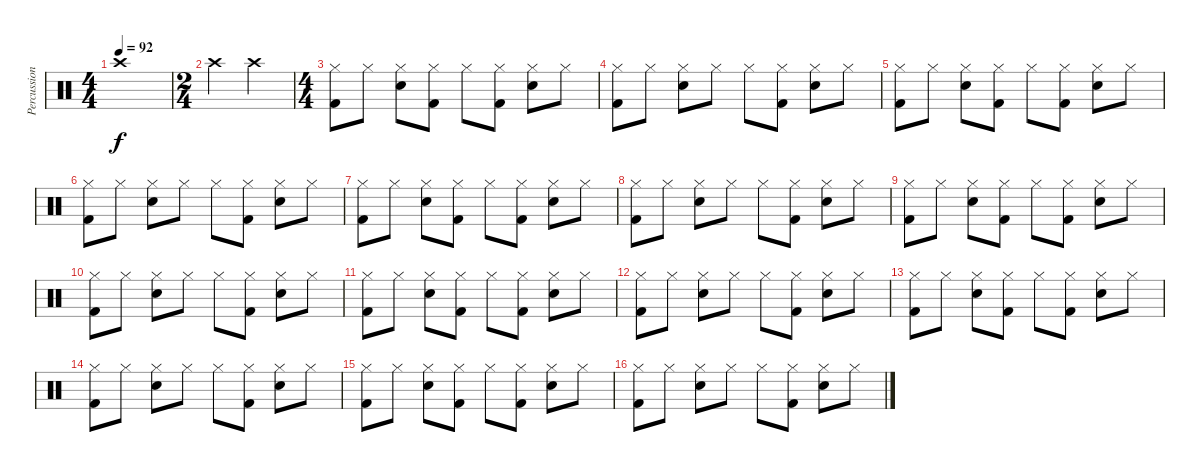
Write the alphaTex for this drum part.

\track ("Percussion" "Percussion") {instrument percussion}
\staff {score}
\articulation defaults
\ts (4 4)
\tempo 92
\clef neutral
\ks c "Crash high (hit)".1{dy f}
|
\ts (2 4)
"Crash high (hit)".4 "Crash high (hit)".4 |
\ts (4 4)
("Hi-Hat (closed)" "Kick (hit) 2").8 "Hi-Hat (closed)".8 ("Hi-Hat (closed)" "Snare (hit) 2").8 ("Hi-Hat (closed)" "Kick (hit) 2").8 "Hi-Hat (closed)".8 ("Hi-Hat (closed)" "Kick (hit) 2").8 ("Hi-Hat (closed)" "Snare (hit) 2").8 "Hi-Hat (closed)".8 |
("Hi-Hat (closed)" "Kick (hit) 2").8 "Hi-Hat (closed)".8 ("Hi-Hat (closed)" "Snare (hit) 2").8 "Hi-Hat (closed)".8 "Hi-Hat (closed)".8 ("Hi-Hat (closed)" "Kick (hit) 2").8 ("Hi-Hat (closed)" "Snare (hit) 2").8 "Hi-Hat (closed)".8 |
("Hi-Hat (closed)" "Kick (hit) 2").8 "Hi-Hat (closed)".8 ("Hi-Hat (closed)" "Snare (hit) 2").8 ("Hi-Hat (closed)" "Kick (hit) 2").8 "Hi-Hat (closed)".8 ("Hi-Hat (closed)" "Kick (hit) 2").8 ("Hi-Hat (closed)" "Snare (hit) 2").8 "Hi-Hat (closed)".8 |
("Hi-Hat (closed)" "Kick (hit) 2").8 "Hi-Hat (closed)".8 ("Hi-Hat (closed)" "Snare (hit) 2").8 "Hi-Hat (closed)".8 "Hi-Hat (closed)".8 ("Hi-Hat (closed)" "Kick (hit) 2").8 ("Hi-Hat (closed)" "Snare (hit) 2").8 "Hi-Hat (closed)".8 |
("Hi-Hat (closed)" "Kick (hit) 2").8 "Hi-Hat (closed)".8 ("Hi-Hat (closed)" "Snare (hit) 2").8 ("Hi-Hat (closed)" "Kick (hit) 2").8 "Hi-Hat (closed)".8 ("Hi-Hat (closed)" "Kick (hit) 2").8 ("Hi-Hat (closed)" "Snare (hit) 2").8 "Hi-Hat (closed)".8 |
("Hi-Hat (closed)" "Kick (hit) 2").8 "Hi-Hat (closed)".8 ("Hi-Hat (closed)" "Snare (hit) 2").8 "Hi-Hat (closed)".8 "Hi-Hat (closed)".8 ("Hi-Hat (closed)" "Kick (hit) 2").8 ("Hi-Hat (closed)" "Snare (hit) 2").8 "Hi-Hat (closed)".8 |
("Hi-Hat (closed)" "Kick (hit) 2").8 "Hi-Hat (closed)".8 ("Hi-Hat (closed)" "Snare (hit) 2").8 ("Hi-Hat (closed)" "Kick (hit) 2").8 "Hi-Hat (closed)".8 ("Hi-Hat (closed)" "Kick (hit) 2").8 ("Hi-Hat (closed)" "Snare (hit) 2").8 "Hi-Hat (closed)".8 |
("Hi-Hat (closed)" "Kick (hit) 2").8 "Hi-Hat (closed)".8 ("Hi-Hat (closed)" "Snare (hit) 2").8 "Hi-Hat (closed)".8 "Hi-Hat (closed)".8 ("Hi-Hat (closed)" "Kick (hit) 2").8 ("Hi-Hat (closed)" "Snare (hit) 2").8 "Hi-Hat (closed)".8 |
("Hi-Hat (closed)" "Kick (hit) 2").8 "Hi-Hat (closed)".8 ("Hi-Hat (closed)" "Snare (hit) 2").8 ("Hi-Hat (closed)" "Kick (hit) 2").8 "Hi-Hat (closed)".8 ("Hi-Hat (closed)" "Kick (hit) 2").8 ("Hi-Hat (closed)" "Snare (hit) 2").8 "Hi-Hat (closed)".8 |
("Hi-Hat (closed)" "Kick (hit) 2").8 "Hi-Hat (closed)".8 ("Hi-Hat (closed)" "Snare (hit) 2").8 "Hi-Hat (closed)".8 "Hi-Hat (closed)".8 ("Hi-Hat (closed)" "Kick (hit) 2").8 ("Hi-Hat (closed)" "Snare (hit) 2").8 "Hi-Hat (closed)".8 |
("Hi-Hat (closed)" "Kick (hit) 2").8 "Hi-Hat (closed)".8 ("Hi-Hat (closed)" "Snare (hit) 2").8 ("Hi-Hat (closed)" "Kick (hit) 2").8 "Hi-Hat (closed)".8 ("Hi-Hat (closed)" "Kick (hit) 2").8 ("Hi-Hat (closed)" "Snare (hit) 2").8 "Hi-Hat (closed)".8 |
("Hi-Hat (closed)" "Kick (hit) 2").8 "Hi-Hat (closed)".8 ("Hi-Hat (closed)" "Snare (hit) 2").8 "Hi-Hat (closed)".8 "Hi-Hat (closed)".8 ("Hi-Hat (closed)" "Kick (hit) 2").8 ("Hi-Hat (closed)" "Snare (hit) 2").8 "Hi-Hat (closed)".8 |
("Hi-Hat (closed)" "Kick (hit) 2").8 "Hi-Hat (closed)".8 ("Hi-Hat (closed)" "Snare (hit) 2").8 ("Hi-Hat (closed)" "Kick (hit) 2").8 "Hi-Hat (closed)".8 ("Hi-Hat (closed)" "Kick (hit) 2").8 ("Hi-Hat (closed)" "Snare (hit) 2").8 "Hi-Hat (closed)".8 |
("Hi-Hat (closed)" "Kick (hit) 2").8 "Hi-Hat (closed)".8 ("Hi-Hat (closed)" "Snare (hit) 2").8 "Hi-Hat (closed)".8 "Hi-Hat (closed)".8 ("Hi-Hat (closed)" "Kick (hit) 2").8 ("Hi-Hat (closed)" "Snare (hit) 2").8 "Hi-Hat (closed)".8
